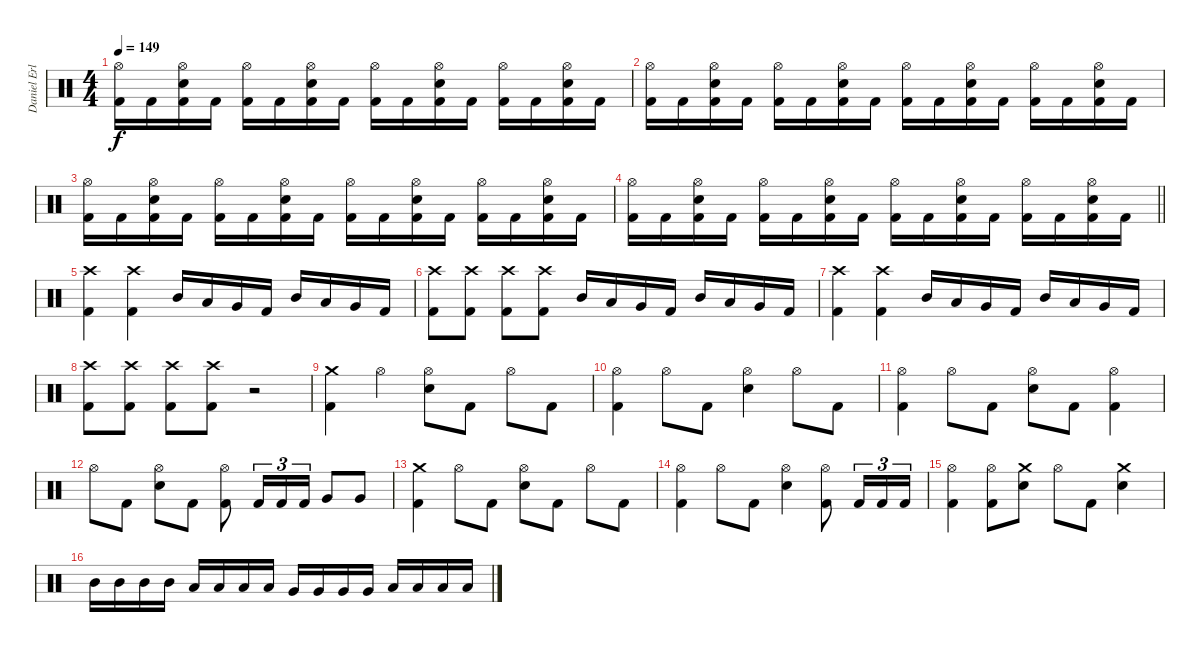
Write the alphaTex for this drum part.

\track ("Daniel Erlandsson" "Daniel Erl") {instrument percussion}
\staff {score}
\articulation defaults
\ts (4 4)
\tempo 149
\clef neutral
\ks c
("Kick (hit) 2" "Hi-Hat (open)").16{dy f} "Kick (hit) 2".16 ("Kick (hit) 2" "Electric Snare (hit)" "Hi-Hat (open)").16 "Kick (hit) 2".16 ("Kick (hit) 2" "Hi-Hat (open)").16 "Kick (hit) 2".16 ("Kick (hit) 2" "Electric Snare (hit)" "Hi-Hat (open)").16 "Kick (hit) 2".16 ("Kick (hit) 2" "Hi-Hat (open)").16 "Kick (hit) 2".16 ("Kick (hit) 2" "Electric Snare (hit)" "Hi-Hat (open)").16 "Kick (hit) 2".16 ("Kick (hit) 2" "Hi-Hat (open)").16 "Kick (hit) 2".16 ("Kick (hit) 2" "Electric Snare (hit)" "Hi-Hat (open)").16 "Kick (hit) 2".16 |
("Kick (hit) 2" "Hi-Hat (open)").16 "Kick (hit) 2".16 ("Kick (hit) 2" "Electric Snare (hit)" "Hi-Hat (open)").16 "Kick (hit) 2".16 ("Kick (hit) 2" "Hi-Hat (open)").16 "Kick (hit) 2".16 ("Kick (hit) 2" "Electric Snare (hit)" "Hi-Hat (open)").16 "Kick (hit) 2".16 ("Kick (hit) 2" "Hi-Hat (open)").16 "Kick (hit) 2".16 ("Kick (hit) 2" "Electric Snare (hit)" "Hi-Hat (open)").16 "Kick (hit) 2".16 ("Kick (hit) 2" "Hi-Hat (open)").16 "Kick (hit) 2".16 ("Kick (hit) 2" "Electric Snare (hit)" "Hi-Hat (open)").16 "Kick (hit) 2".16 |
("Kick (hit) 2" "Hi-Hat (open)").16 "Kick (hit) 2".16 ("Kick (hit) 2" "Electric Snare (hit)" "Hi-Hat (open)").16 "Kick (hit) 2".16 ("Kick (hit) 2" "Hi-Hat (open)").16 "Kick (hit) 2".16 ("Kick (hit) 2" "Electric Snare (hit)" "Hi-Hat (open)").16 "Kick (hit) 2".16 ("Kick (hit) 2" "Hi-Hat (open)").16 "Kick (hit) 2".16 ("Kick (hit) 2" "Electric Snare (hit)" "Hi-Hat (open)").16 "Kick (hit) 2".16 ("Kick (hit) 2" "Hi-Hat (open)").16 "Kick (hit) 2".16 ("Kick (hit) 2" "Electric Snare (hit)" "Hi-Hat (open)").16 "Kick (hit) 2".16 |
\barLineRight lightlight
("Kick (hit) 2" "Hi-Hat (open)").16 "Kick (hit) 2".16 ("Kick (hit) 2" "Electric Snare (hit)" "Hi-Hat (open)").16 "Kick (hit) 2".16 ("Kick (hit) 2" "Hi-Hat (open)").16 "Kick (hit) 2".16 ("Kick (hit) 2" "Electric Snare (hit)" "Hi-Hat (open)").16 "Kick (hit) 2".16 ("Kick (hit) 2" "Hi-Hat (open)").16 "Kick (hit) 2".16 ("Kick (hit) 2" "Electric Snare (hit)" "Hi-Hat (open)").16 "Kick (hit) 2".16 ("Kick (hit) 2" "Hi-Hat (open)").16 "Kick (hit) 2".16 ("Kick (hit) 2" "Electric Snare (hit)" "Hi-Hat (open)").16 "Kick (hit) 2".16 |
("Kick (hit) 2" "Crash high (hit)").4 ("Kick (hit) 2" "Crash high (hit)").4 "Mid Tom (hit)".16 "Low Tom (hit)".16 "Very Low Tom (hit)".16 "Kick (hit) 2".16 "Mid Tom (hit)".16 "Low Tom (hit)".16 "Very Low Tom (hit)".16 "Kick (hit) 2".16 |
("Kick (hit) 2" "Crash high (hit)").8 ("Kick (hit) 2" "Crash high (hit)").8 ("Kick (hit) 2" "Crash high (hit)").8 ("Kick (hit) 2" "Crash high (hit)").8 "Mid Tom (hit)".16 "Low Tom (hit)".16 "Very Low Tom (hit)".16 "Kick (hit) 2".16 "Mid Tom (hit)".16 "Low Tom (hit)".16 "Very Low Tom (hit)".16 "Kick (hit) 2".16 |
("Kick (hit) 2" "Crash high (hit)").4 ("Kick (hit) 2" "Crash high (hit)").4 "Mid Tom (hit)".16 "Low Tom (hit)".16 "Very Low Tom (hit)".16 "Kick (hit) 2".16 "Mid Tom (hit)".16 "Low Tom (hit)".16 "Very Low Tom (hit)".16 "Kick (hit) 2".16 |
("Kick (hit) 2" "Crash high (hit)").8 ("Kick (hit) 2" "Crash high (hit)").8 ("Kick (hit) 2" "Crash high (hit)").8 ("Kick (hit) 2" "Crash high (hit)").8 r.2 |
("Kick (hit) 2" "Crash medium (hit)").4 "Hi-Hat (open)".4 ("Electric Snare (hit)" "Hi-Hat (open)").8 "Kick (hit) 2".8 "Hi-Hat (open)".8 "Kick (hit) 2".8 |
("Kick (hit) 2" "Hi-Hat (open)").4 "Hi-Hat (open)".8 "Kick (hit) 2".8 ("Electric Snare (hit)" "Hi-Hat (open)").4 "Hi-Hat (open)".8 "Kick (hit) 2".8 |
("Kick (hit) 2" "Hi-Hat (open)").4 "Hi-Hat (open)".8 "Kick (hit) 2".8 ("Electric Snare (hit)" "Hi-Hat (open)").8 "Kick (hit) 2".8 ("Kick (hit) 2" "Hi-Hat (open)").4 |
"Hi-Hat (open)".8 "Kick (hit) 2".8 ("Electric Snare (hit)" "Hi-Hat (open)").8 "Kick (hit) 2".8 ("Kick (hit) 2" "Hi-Hat (open)").8 "Kick (hit) 2".16{tu (3 2)} "Kick (hit) 2".16{tu (3 2)} "Kick (hit) 2".16{tu (3 2)} "Very Low Tom (hit)".8 "Very Low Tom (hit)".8 |
("Kick (hit) 2" "Crash medium (hit)").4 "Hi-Hat (open)".8 "Kick (hit) 2".8 ("Electric Snare (hit)" "Hi-Hat (open)").8 "Kick (hit) 2".8 "Hi-Hat (open)".8 "Kick (hit) 2".8 |
("Kick (hit) 2" "Hi-Hat (open)").4 "Hi-Hat (open)".8 "Kick (hit) 2".8 ("Electric Snare (hit)" "Hi-Hat (open)").4 ("Kick (hit) 2" "Hi-Hat (open)").8 "Kick (hit) 2".16{tu (3 2)} "Kick (hit) 2".16{tu (3 2)} "Kick (hit) 2".16{tu (3 2)} |
("Kick (hit) 2" "Hi-Hat (open)").4 ("Kick (hit) 2" "Hi-Hat (open)").8 ("Electric Snare (hit)" "Crash medium (hit)").8 "Hi-Hat (open)".8 "Kick (hit) 2".8 ("Electric Snare (hit)" "Crash medium (hit)").4 |
"Mid Tom (hit)".16 "Mid Tom (hit)".16 "Mid Tom (hit)".16 "Mid Tom (hit)".16 "Low Tom (hit)".16 "Low Tom (hit)".16 "Low Tom (hit)".16 "Low Tom (hit)".16 "Very Low Tom (hit)".16 "Very Low Tom (hit)".16 "Very Low Tom (hit)".16 "Very Low Tom (hit)".16 "Low Floor Tom (hit)".16 "Low Floor Tom (hit)".16 "Low Floor Tom (hit)".16 "Low Floor Tom (hit)".16
